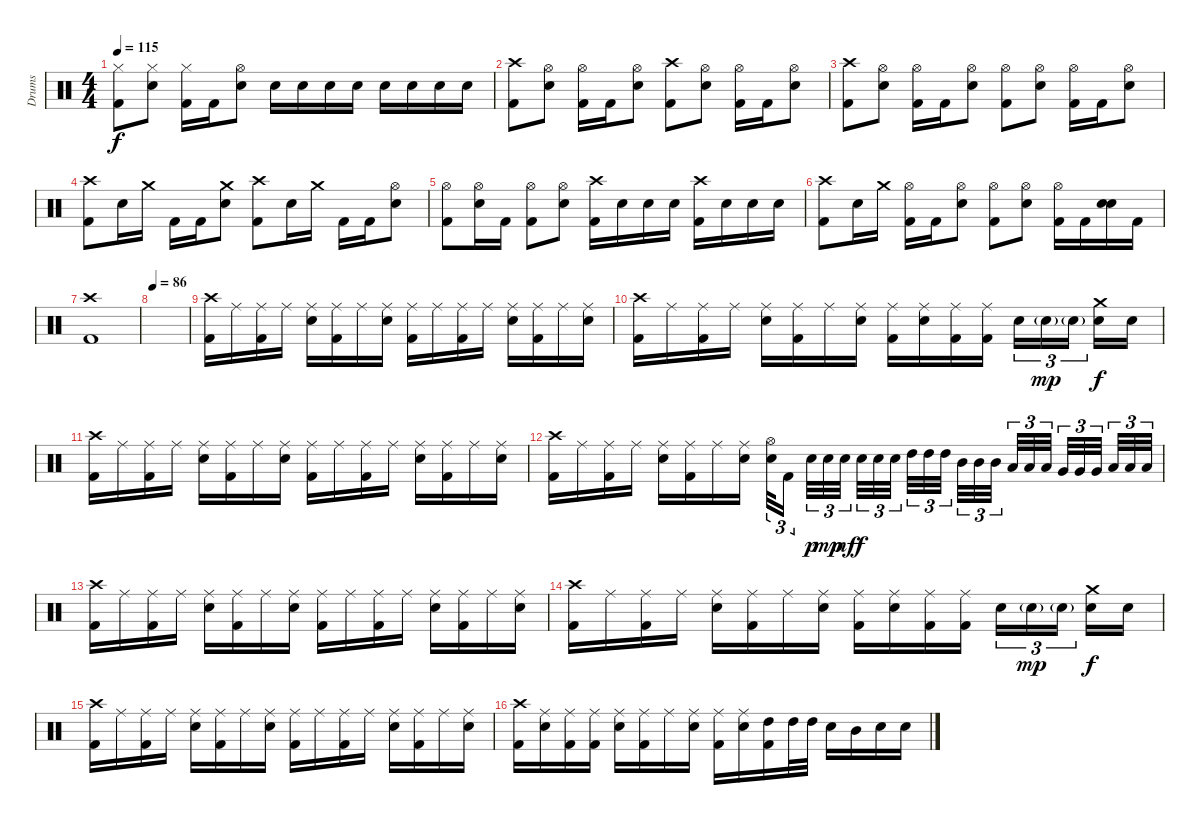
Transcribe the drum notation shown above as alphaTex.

\track ("Drums" "Drums") {instrument percussion}
\staff {score}
\articulation defaults
\ts (4 4)
\tempo 115
\clef neutral
\ks c
("Hi-Hat (closed)" "Kick (hit) 2").8{dy f} ("Hi-Hat (closed)" "Snare (hit) 2").8 ("Hi-Hat (closed)" "Kick (hit) 2").16 "Kick (hit) 2".16 ("Hi-Hat (open)" "Snare (hit) 2").8 "Snare (hit) 2".16 "Snare (hit) 2".16 "Snare (hit) 2".16 "Snare (hit) 2".16 "Snare (hit) 2".16 "Snare (hit) 2".16 "Snare (hit) 2".16 "Snare (hit) 2".16 |
("Crash high (hit)" "Kick (hit) 2").8 ("Hi-Hat (open)" "Snare (hit) 2").8 ("Hi-Hat (open)" "Kick (hit) 2").16 "Kick (hit) 2".16 ("Hi-Hat (open)" "Snare (hit) 2").8 ("Crash high (hit)" "Kick (hit) 2").8 ("Hi-Hat (open)" "Snare (hit) 2").8 ("Hi-Hat (open)" "Kick (hit) 2").16 "Kick (hit) 2".16 ("Hi-Hat (open)" "Snare (hit) 2").8 |
("Crash high (hit)" "Kick (hit) 2").8 ("Hi-Hat (open)" "Snare (hit) 2").8 ("Hi-Hat (open)" "Kick (hit) 2").16 "Kick (hit) 2".16 ("Hi-Hat (open)" "Snare (hit) 2").8 ("Hi-Hat (open)" "Kick (hit) 2").8 ("Hi-Hat (open)" "Snare (hit) 2").8 ("Hi-Hat (open)" "Kick (hit) 2").16 "Kick (hit) 2".16 ("Hi-Hat (open)" "Snare (hit) 2").8 |
("Crash high (hit)" "Kick (hit) 2").8 "Snare (hit) 2".16 "Crash medium (hit)".16 "Kick (hit) 2".16 "Kick (hit) 2".16 ("Crash medium (hit)" "Snare (hit) 2").8 ("Crash high (hit)" "Kick (hit) 2").8 "Snare (hit) 2".16 "Crash medium (hit)".16 "Kick (hit) 2".16 "Kick (hit) 2".16 ("Hi-Hat (open)" "Snare (hit) 2").8 |
("Hi-Hat (open)" "Kick (hit) 2").8 ("Hi-Hat (open)" "Snare (hit) 2").16 "Kick (hit) 2".16 ("Hi-Hat (open)" "Kick (hit) 2").8 ("Hi-Hat (open)" "Snare (hit) 2").8 ("Crash high (hit)" "Kick (hit) 2").16 "Snare (hit) 2".16 "Snare (hit) 2".16 "Snare (hit) 2".16 ("Crash high (hit)" "Kick (hit) 2").16 "Snare (hit) 2".16 "Snare (hit) 2".16 "Snare (hit) 2".16 |
("Crash high (hit)" "Kick (hit) 2").8 "Snare (hit) 2".16 "Crash medium (hit)".16 ("Hi-Hat (open)" "Kick (hit) 2").16 "Kick (hit) 2".16 ("Hi-Hat (open)" "Snare (hit) 2").8 ("Hi-Hat (open)" "Kick (hit) 2").8 ("Hi-Hat (open)" "Snare (hit) 2").8 ("Hi-Hat (open)" "Kick (hit) 2").16 "Kick (hit) 2".16 ("Snare (hit) 2" "Snare (hit) 2").16{bd 240} "Kick (hit) 2".16 |
("Crash high (hit)" "Kick (hit) 2").1 |
\tempo 86
|
("Crash high (hit)" "Kick (hit) 2").16 "Ride (middle)".16 ("Ride (middle)" "Kick (hit) 2").16 "Ride (middle)".16 ("Ride (middle)" "Snare (hit) 2").16 ("Ride (middle)" "Kick (hit) 2").16 "Ride (middle)".16 ("Ride (middle)" "Snare (hit) 2").16 ("Ride (middle)" "Kick (hit) 2").16 "Ride (middle)".16 ("Ride (middle)" "Kick (hit) 2").16 "Ride (middle)".16 ("Ride (middle)" "Snare (hit) 2").16 ("Ride (middle)" "Kick (hit) 2").16 "Ride (middle)".16 ("Ride (middle)" "Snare (hit) 2").16 |
("Crash high (hit)" "Kick (hit) 2").16 "Ride (middle)".16 ("Ride (middle)" "Kick (hit) 2").16 "Ride (middle)".16 ("Ride (middle)" "Snare (hit) 2").16 ("Ride (middle)" "Kick (hit) 2").16 "Ride (middle)".16 ("Ride (middle)" "Snare (hit) 2").16 ("Ride (middle)" "Kick (hit) 2").16 ("Ride (middle)" "Snare (hit) 2").16 ("Ride (middle)" "Kick (hit) 2").16 ("Ride (middle)" "Kick (hit) 2").16 "Snare (hit) 2".16{tu (3 2)} "Snare (hit) 2"{g}.16{tu (3 2) dy mp} "Snare (hit) 2"{g}.16{tu (3 2)} ("Crash medium (hit)" "Snare (hit) 2").16{dy f} "Snare (hit) 2".16 |
("Crash high (hit)" "Kick (hit) 2").16 "Ride (middle)".16 ("Ride (middle)" "Kick (hit) 2").16 "Ride (middle)".16 ("Ride (middle)" "Snare (hit) 2").16 ("Ride (middle)" "Kick (hit) 2").16 "Ride (middle)".16 ("Ride (middle)" "Snare (hit) 2").16 ("Ride (middle)" "Kick (hit) 2").16 "Ride (middle)".16 ("Ride (middle)" "Kick (hit) 2").16 "Ride (middle)".16 ("Ride (middle)" "Snare (hit) 2").16 ("Ride (middle)" "Kick (hit) 2").16 "Ride (middle)".16 ("Ride (middle)" "Snare (hit) 2").16 |
("Crash high (hit)" "Kick (hit) 2").16 "Ride (middle)".16 ("Ride (middle)" "Kick (hit) 2").16 "Ride (middle)".16 ("Ride (middle)" "Snare (hit) 2").16 ("Ride (middle)" "Kick (hit) 2").16 "Ride (middle)".16 ("Ride (middle)" "Snare (hit) 2").16 ("Hi-Hat (open)" "Snare (hit) 2").32{tu (3 2)} "Kick (hit) 2".16{tu (3 2)} "Snare (hit) 2".32{tu (3 2) dy p} "Snare (hit) 2".32{tu (3 2) dy mp} "Snare (hit) 2".32{tu (3 2) dy mf} "Snare (hit) 2".32{tu (3 2) dy f} "Snare (hit) 2".32{tu (3 2)} "Snare (hit) 2".32{tu (3 2)} "High Tom (hit)".32{tu (3 2)} "High Tom (hit)".32{tu (3 2)} "High Tom (hit)".32{tu (3 2)} "Mid Tom (hit)".32{tu (3 2)} "Mid Tom (hit)".32{tu (3 2)} "Mid Tom (hit)".32{tu (3 2)} "Low Tom (hit)".32{tu (3 2)} "Low Tom (hit)".32{tu (3 2)} "Low Tom (hit)".32{tu (3 2)} "Very Low Tom (hit)".32{tu (3 2)} "Very Low Tom (hit)".32{tu (3 2)} "Very Low Tom (hit)".32{tu (3 2)} "Low Floor Tom (hit)".32{tu (3 2)} "Low Floor Tom (hit)".32{tu (3 2)} "Low Floor Tom (hit)".32{tu (3 2)} |
("Crash high (hit)" "Kick (hit) 2").16 "Ride (middle)".16 ("Ride (middle)" "Kick (hit) 2").16 "Ride (middle)".16 ("Ride (middle)" "Snare (hit) 2").16 ("Ride (middle)" "Kick (hit) 2").16 "Ride (middle)".16 ("Ride (middle)" "Snare (hit) 2").16 ("Ride (middle)" "Kick (hit) 2").16 "Ride (middle)".16 ("Ride (middle)" "Kick (hit) 2").16 "Ride (middle)".16 ("Ride (middle)" "Snare (hit) 2").16 ("Ride (middle)" "Kick (hit) 2").16 "Ride (middle)".16 ("Ride (middle)" "Snare (hit) 2").16 |
("Crash high (hit)" "Kick (hit) 2").16 "Ride (middle)".16 ("Ride (middle)" "Kick (hit) 2").16 "Ride (middle)".16 ("Ride (middle)" "Snare (hit) 2").16 ("Ride (middle)" "Kick (hit) 2").16 "Ride (middle)".16 ("Ride (middle)" "Snare (hit) 2").16 ("Ride (middle)" "Kick (hit) 2").16 ("Ride (middle)" "Snare (hit) 2").16 ("Ride (middle)" "Kick (hit) 2").16 ("Ride (middle)" "Kick (hit) 2").16 "Snare (hit) 2".16{tu (3 2)} "Snare (hit) 2"{g}.16{tu (3 2) dy mp} "Snare (hit) 2"{g}.16{tu (3 2)} ("Crash medium (hit)" "Snare (hit) 2").16{dy f} "Snare (hit) 2".16 |
("Crash high (hit)" "Kick (hit) 2").16 "Ride (middle)".16 ("Ride (middle)" "Kick (hit) 2").16 "Ride (middle)".16 ("Ride (middle)" "Snare (hit) 2").16 ("Ride (middle)" "Kick (hit) 2").16 "Ride (middle)".16 ("Ride (middle)" "Snare (hit) 2").16 ("Ride (middle)" "Kick (hit) 2").16 "Ride (middle)".16 ("Ride (middle)" "Kick (hit) 2").16 "Ride (middle)".16 ("Ride (middle)" "Snare (hit) 2").16 ("Ride (middle)" "Kick (hit) 2").16 "Ride (middle)".16 ("Ride (middle)" "Snare (hit) 2").16 |
("Crash high (hit)" "Kick (hit) 2").16 ("Ride (middle)" "Snare (hit) 2").16 ("Ride (middle)" "Kick (hit) 2").16 ("Ride (middle)" "Kick (hit) 2").16 ("Ride (middle)" "Snare (hit) 2").16 ("Ride (middle)" "Kick (hit) 2").16 "Ride (middle)".16 ("Ride (middle)" "Snare (hit) 2").16 ("Ride (middle)" "Kick (hit) 2").16 ("Ride (middle)" "Snare (hit) 2").16 ("High Tom (hit)" "Kick (hit) 2").16 "High Tom (hit)".32 "High Tom (hit)".32 "Snare (hit) 2".16 "Mid Tom (hit)".16 "Snare (hit) 2".16 "Snare (hit) 2".16
